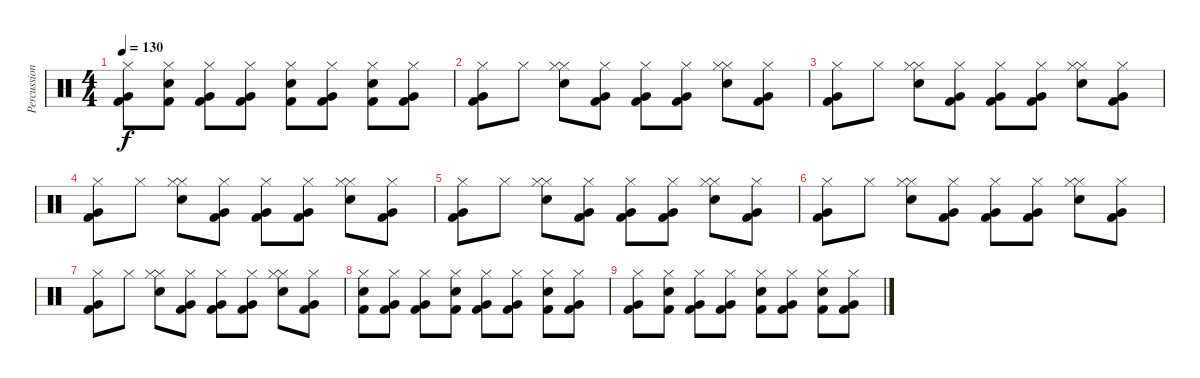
\track ("Percussion" "Percussion") {instrument percussion}
\staff {score}
\articulation defaults
\ts (4 4)
\tempo 130
\clef neutral
\ks c
("Hi-Hat (closed)" "Very Low Tom (hit)" "Kick (hit) 2").8{dy f} ("Hi-Hat (closed)" "Snare (hit) 2" "Kick (hit) 2").8 ("Hi-Hat (closed)" "Very Low Tom (hit)" "Kick (hit) 2").8 ("Hi-Hat (closed)" "Very Low Tom (hit)" "Kick (hit) 2").8 ("Hi-Hat (closed)" "Snare (hit) 2" "Kick (hit) 2").8 ("Hi-Hat (closed)" "Very Low Tom (hit)" "Kick (hit) 2").8 ("Hi-Hat (closed)" "Snare (hit) 2" "Kick (hit) 2").8 ("Hi-Hat (closed)" "Very Low Tom (hit)" "Kick (hit) 2").8 |
("Hi-Hat (closed)" "Very Low Tom (hit)" "Kick (hit) 2").8 "Hi-Hat (closed)".8 ("Hi-Hat (closed)" "Hi-Hat (closed)" "Snare (hit) 2").8 ("Hi-Hat (closed)" "Very Low Tom (hit)" "Kick (hit) 2").8 ("Hi-Hat (closed)" "Very Low Tom (hit)" "Kick (hit) 2").8 ("Hi-Hat (closed)" "Very Low Tom (hit)" "Kick (hit) 2").8 ("Hi-Hat (closed)" "Hi-Hat (closed)" "Snare (hit) 2").8 ("Hi-Hat (closed)" "Very Low Tom (hit)" "Kick (hit) 2").8 |
("Hi-Hat (closed)" "Very Low Tom (hit)" "Kick (hit) 2").8 "Hi-Hat (closed)".8 ("Hi-Hat (closed)" "Hi-Hat (closed)" "Snare (hit) 2").8 ("Hi-Hat (closed)" "Very Low Tom (hit)" "Kick (hit) 2").8 ("Hi-Hat (closed)" "Very Low Tom (hit)" "Kick (hit) 2").8 ("Hi-Hat (closed)" "Very Low Tom (hit)" "Kick (hit) 2").8 ("Hi-Hat (closed)" "Hi-Hat (closed)" "Snare (hit) 2").8 ("Hi-Hat (closed)" "Very Low Tom (hit)" "Kick (hit) 2").8 |
("Hi-Hat (closed)" "Very Low Tom (hit)" "Kick (hit) 2").8 "Hi-Hat (closed)".8 ("Hi-Hat (closed)" "Hi-Hat (closed)" "Snare (hit) 2").8 ("Hi-Hat (closed)" "Very Low Tom (hit)" "Kick (hit) 2").8 ("Hi-Hat (closed)" "Very Low Tom (hit)" "Kick (hit) 2").8 ("Hi-Hat (closed)" "Very Low Tom (hit)" "Kick (hit) 2").8 ("Hi-Hat (closed)" "Hi-Hat (closed)" "Snare (hit) 2").8 ("Hi-Hat (closed)" "Very Low Tom (hit)" "Kick (hit) 2").8 |
("Hi-Hat (closed)" "Very Low Tom (hit)" "Kick (hit) 2").8 "Hi-Hat (closed)".8 ("Hi-Hat (closed)" "Hi-Hat (closed)" "Snare (hit) 2").8 ("Hi-Hat (closed)" "Very Low Tom (hit)" "Kick (hit) 2").8 ("Hi-Hat (closed)" "Very Low Tom (hit)" "Kick (hit) 2").8 ("Hi-Hat (closed)" "Very Low Tom (hit)" "Kick (hit) 2").8 ("Hi-Hat (closed)" "Hi-Hat (closed)" "Snare (hit) 2").8 ("Hi-Hat (closed)" "Very Low Tom (hit)" "Kick (hit) 2").8 |
("Hi-Hat (closed)" "Very Low Tom (hit)" "Kick (hit) 2").8 "Hi-Hat (closed)".8 ("Hi-Hat (closed)" "Hi-Hat (closed)" "Snare (hit) 2").8 ("Hi-Hat (closed)" "Very Low Tom (hit)" "Kick (hit) 2").8 ("Hi-Hat (closed)" "Very Low Tom (hit)" "Kick (hit) 2").8 ("Hi-Hat (closed)" "Very Low Tom (hit)" "Kick (hit) 2").8 ("Hi-Hat (closed)" "Hi-Hat (closed)" "Snare (hit) 2").8 ("Hi-Hat (closed)" "Very Low Tom (hit)" "Kick (hit) 2").8 |
("Hi-Hat (closed)" "Very Low Tom (hit)" "Kick (hit) 2").8 "Hi-Hat (closed)".8 ("Hi-Hat (closed)" "Hi-Hat (closed)" "Snare (hit) 2").8 ("Hi-Hat (closed)" "Very Low Tom (hit)" "Kick (hit) 2").8 ("Hi-Hat (closed)" "Very Low Tom (hit)" "Kick (hit) 2").8 ("Hi-Hat (closed)" "Very Low Tom (hit)" "Kick (hit) 2").8 ("Hi-Hat (closed)" "Hi-Hat (closed)" "Snare (hit) 2").8 ("Hi-Hat (closed)" "Very Low Tom (hit)" "Kick (hit) 2").8 |
("Hi-Hat (closed)" "Snare (hit) 2" "Kick (hit) 2").8 ("Hi-Hat (closed)" "Very Low Tom (hit)" "Kick (hit) 2").8 ("Hi-Hat (closed)" "Very Low Tom (hit)" "Kick (hit) 2").8 ("Hi-Hat (closed)" "Snare (hit) 2" "Kick (hit) 2").8 ("Hi-Hat (closed)" "Very Low Tom (hit)" "Kick (hit) 2").8 ("Hi-Hat (closed)" "Very Low Tom (hit)" "Kick (hit) 2").8 ("Hi-Hat (closed)" "Snare (hit) 2" "Kick (hit) 2").8 ("Hi-Hat (closed)" "Very Low Tom (hit)" "Kick (hit) 2").8 |
("Hi-Hat (closed)" "Very Low Tom (hit)" "Kick (hit) 2").8 ("Hi-Hat (closed)" "Snare (hit) 2" "Kick (hit) 2").8 ("Hi-Hat (closed)" "Very Low Tom (hit)" "Kick (hit) 2").8 ("Hi-Hat (closed)" "Very Low Tom (hit)" "Kick (hit) 2").8 ("Hi-Hat (closed)" "Snare (hit) 2" "Kick (hit) 2").8 ("Hi-Hat (closed)" "Very Low Tom (hit)" "Kick (hit) 2").8 ("Hi-Hat (closed)" "Snare (hit) 2" "Kick (hit) 2").8 ("Hi-Hat (closed)" "Very Low Tom (hit)" "Kick (hit) 2").8
